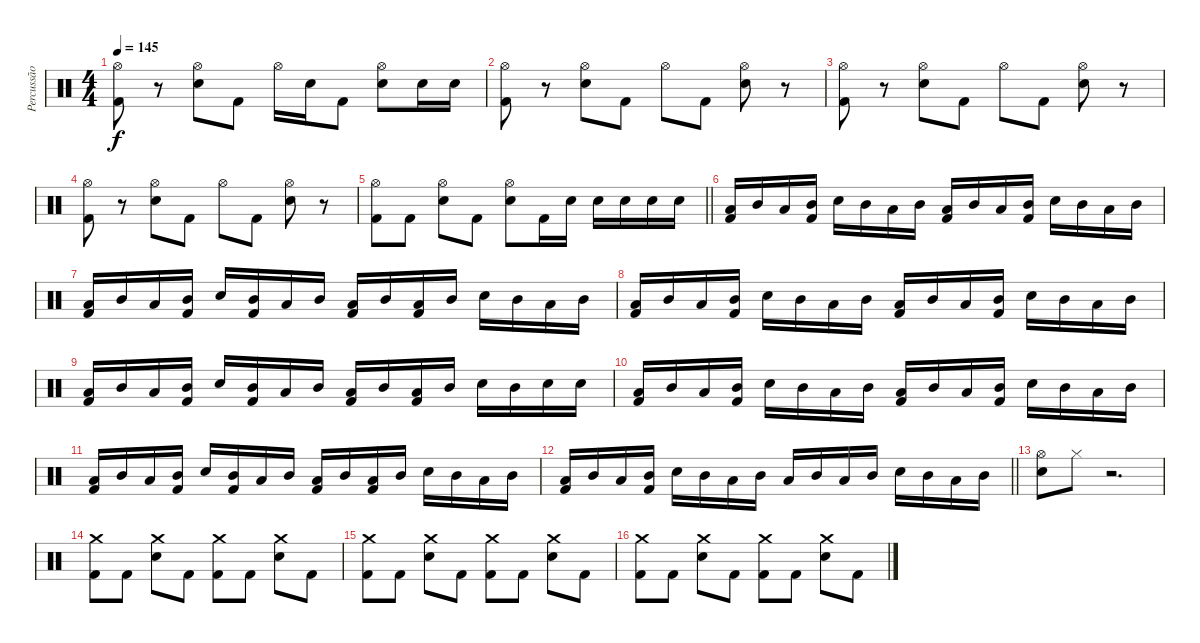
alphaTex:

\track ("Percussão" "Percussão") {instrument percussion}
\staff {score}
\articulation defaults
\ts (4 4)
\tempo 145
\clef neutral
\ks c
("Hi-Hat (open)" "Kick (hit) 2").8{dy f} r.8 ("Hi-Hat (open)" "Electric Snare (hit)").8 "Kick (hit) 2".8 "Hi-Hat (open)".16 "Electric Snare (hit)".16 "Kick (hit) 2".8 ("Hi-Hat (open)" "Electric Snare (hit)").8 "Electric Snare (hit)".16 "Electric Snare (hit)".16 |
("Hi-Hat (open)" "Kick (hit) 2").8 r.8 ("Hi-Hat (open)" "Electric Snare (hit)").8 "Kick (hit) 2".8 "Hi-Hat (open)".8 "Kick (hit) 2".8 ("Hi-Hat (open)" "Electric Snare (hit)").8 r.8 |
("Hi-Hat (open)" "Kick (hit) 2").8 r.8 ("Hi-Hat (open)" "Electric Snare (hit)").8 "Kick (hit) 2".8 "Hi-Hat (open)".8 "Kick (hit) 2".8 ("Hi-Hat (open)" "Electric Snare (hit)").8 r.8 |
("Hi-Hat (open)" "Kick (hit) 2").8 r.8 ("Hi-Hat (open)" "Electric Snare (hit)").8 "Kick (hit) 2".8 "Hi-Hat (open)".8 "Kick (hit) 2".8 ("Hi-Hat (open)" "Electric Snare (hit)").8 r.8 |
\barLineRight lightlight
("Hi-Hat (open)" "Kick (hit) 2").8 "Kick (hit) 2".8 ("Hi-Hat (open)" "Electric Snare (hit)").8 "Kick (hit) 2".8 ("Hi-Hat (open)" "Electric Snare (hit)").8 "Kick (hit) 2".16 "Electric Snare (hit)".16 "Electric Snare (hit)".16 "Electric Snare (hit)".16 "Electric Snare (hit)".16 "Electric Snare (hit)".16 |
("Low Tom (hit)" "Kick (hit) 2").16 "Mid Tom (hit)".16 "Low Tom (hit)".16 ("Mid Tom (hit)" "Kick (hit) 2").16 "Electric Snare (hit)".16 "Mid Tom (hit)".16 "Low Tom (hit)".16 "Mid Tom (hit)".16 ("Low Tom (hit)" "Kick (hit) 2").16 "Mid Tom (hit)".16 "Low Tom (hit)".16 ("Mid Tom (hit)" "Kick (hit) 2").16 "Electric Snare (hit)".16 "Mid Tom (hit)".16 "Low Tom (hit)".16 "Mid Tom (hit)".16 |
("Low Tom (hit)" "Kick (hit) 2").16 "Mid Tom (hit)".16 "Low Tom (hit)".16 ("Mid Tom (hit)" "Kick (hit) 2").16 "Electric Snare (hit)".16 ("Mid Tom (hit)" "Kick (hit) 2").16 "Low Tom (hit)".16 "Mid Tom (hit)".16 ("Low Tom (hit)" "Kick (hit) 2").16 "Mid Tom (hit)".16 ("Low Tom (hit)" "Kick (hit) 2").16 "Mid Tom (hit)".16 "Electric Snare (hit)".16 "Mid Tom (hit)".16 "Low Tom (hit)".16 "Mid Tom (hit)".16 |
("Low Tom (hit)" "Kick (hit) 2").16 "Mid Tom (hit)".16 "Low Tom (hit)".16 ("Mid Tom (hit)" "Kick (hit) 2").16 "Electric Snare (hit)".16 "Mid Tom (hit)".16 "Low Tom (hit)".16 "Mid Tom (hit)".16 ("Low Tom (hit)" "Kick (hit) 2").16 "Mid Tom (hit)".16 "Low Tom (hit)".16 ("Mid Tom (hit)" "Kick (hit) 2").16 "Electric Snare (hit)".16 "Mid Tom (hit)".16 "Low Tom (hit)".16 "Mid Tom (hit)".16 |
("Low Tom (hit)" "Kick (hit) 2").16 "Mid Tom (hit)".16 "Low Tom (hit)".16 ("Mid Tom (hit)" "Kick (hit) 2").16 "Electric Snare (hit)".16 ("Mid Tom (hit)" "Kick (hit) 2").16 "Low Tom (hit)".16 "Mid Tom (hit)".16 ("Low Tom (hit)" "Kick (hit) 2").16 "Mid Tom (hit)".16 ("Low Tom (hit)" "Kick (hit) 2").16 "Mid Tom (hit)".16 "Electric Snare (hit)".16 "Mid Tom (hit)".16 "Electric Snare (hit)".16 "Electric Snare (hit)".16 |
("Low Tom (hit)" "Kick (hit) 2").16 "Mid Tom (hit)".16 "Low Tom (hit)".16 ("Mid Tom (hit)" "Kick (hit) 2").16 "Electric Snare (hit)".16 "Mid Tom (hit)".16 "Low Tom (hit)".16 "Mid Tom (hit)".16 ("Low Tom (hit)" "Kick (hit) 2").16 "Mid Tom (hit)".16 "Low Tom (hit)".16 ("Mid Tom (hit)" "Kick (hit) 2").16 "Electric Snare (hit)".16 "Mid Tom (hit)".16 "Low Tom (hit)".16 "Mid Tom (hit)".16 |
("Low Tom (hit)" "Kick (hit) 2").16 "Mid Tom (hit)".16 "Low Tom (hit)".16 ("Mid Tom (hit)" "Kick (hit) 2").16 "Electric Snare (hit)".16 ("Mid Tom (hit)" "Kick (hit) 2").16 "Low Tom (hit)".16 "Mid Tom (hit)".16 ("Low Tom (hit)" "Kick (hit) 2").16 "Mid Tom (hit)".16 ("Low Tom (hit)" "Kick (hit) 2").16 "Mid Tom (hit)".16 "Electric Snare (hit)".16 "Mid Tom (hit)".16 "Low Tom (hit)".16 "Mid Tom (hit)".16 |
\barLineRight lightlight
("Low Tom (hit)" "Kick (hit) 2").16 "Mid Tom (hit)".16 "Low Tom (hit)".16 ("Mid Tom (hit)" "Kick (hit) 2").16 "Electric Snare (hit)".16 "Mid Tom (hit)".16 "Low Tom (hit)".16 "Mid Tom (hit)".16 "Low Tom (hit)".16 "Mid Tom (hit)".16 "Low Tom (hit)".16 "Mid Tom (hit)".16 "Electric Snare (hit)".16 "Mid Tom (hit)".16 "Low Tom (hit)".16 "Mid Tom (hit)".16 |
("Hi-Hat (open)" "Electric Snare (hit)").8 "Hi-Hat (closed)".8 r.2{d} |
("Crash medium (hit)" "Kick (hit) 2").8 "Kick (hit) 2".8 ("Crash medium (hit)" "Electric Snare (hit)").8 "Kick (hit) 2".8 ("Crash medium (hit)" "Kick (hit) 2").8 "Kick (hit) 2".8 ("Crash medium (hit)" "Electric Snare (hit)").8 "Kick (hit) 2".8 |
("Crash medium (hit)" "Kick (hit) 2").8 "Kick (hit) 2".8 ("Crash medium (hit)" "Electric Snare (hit)").8 "Kick (hit) 2".8 ("Crash medium (hit)" "Kick (hit) 2").8 "Kick (hit) 2".8 ("Crash medium (hit)" "Electric Snare (hit)").8 "Kick (hit) 2".8 |
("Crash medium (hit)" "Kick (hit) 2").8 "Kick (hit) 2".8 ("Crash medium (hit)" "Electric Snare (hit)").8 "Kick (hit) 2".8 ("Crash medium (hit)" "Kick (hit) 2").8 "Kick (hit) 2".8 ("Crash medium (hit)" "Electric Snare (hit)").8 "Kick (hit) 2".8
